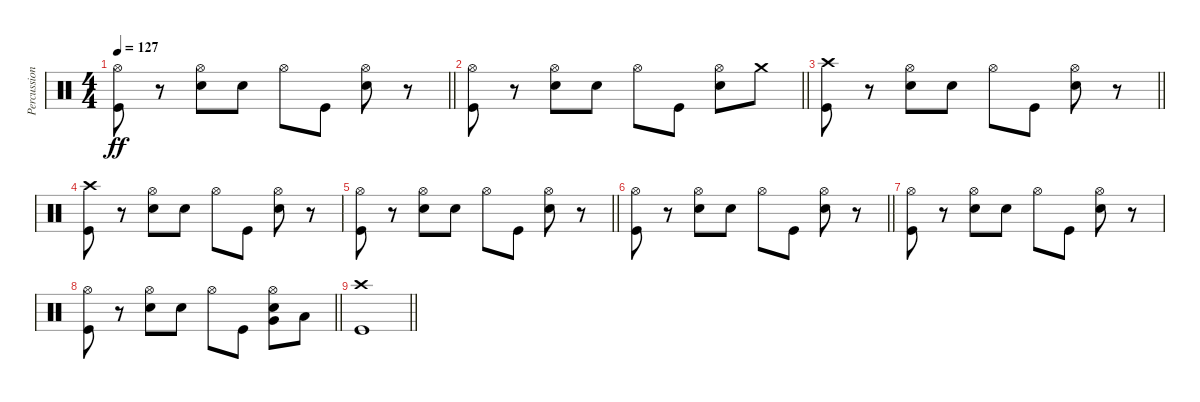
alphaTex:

\track ("Percussion" "Percussion") {instrument percussion}
\staff {score}
\articulation defaults
\ts (4 4)
\tempo 127
\clef neutral
\barLineRight lightlight
\ks c
("Hi-Hat (open)" "Kick (hit)").8{dy ff} r.8 ("Hi-Hat (open)" "Electric Snare (hit)").8 "Electric Snare (hit)".8 "Hi-Hat (open)".8 "Kick (hit)".8 ("Hi-Hat (open)" "Electric Snare (hit)").8 r.8 |
\barLineRight lightlight
("Hi-Hat (open)" "Kick (hit)").8 r.8 ("Hi-Hat (open)" "Electric Snare (hit)").8 "Electric Snare (hit)".8 "Hi-Hat (open)".8 "Kick (hit)".8 ("Hi-Hat (open)" "Electric Snare (hit)").8 "Crash medium (hit)".8 |
\barLineRight lightlight
("Crash high (hit)" "Kick (hit)").8 r.8 ("Hi-Hat (open)" "Electric Snare (hit)").8 "Electric Snare (hit)".8 "Hi-Hat (open)".8 "Kick (hit)".8 ("Hi-Hat (open)" "Electric Snare (hit)").8 r.8 |
("Crash high (hit)" "Kick (hit)").8 r.8 ("Hi-Hat (open)" "Electric Snare (hit)").8 "Electric Snare (hit)".8 "Hi-Hat (open)".8 "Kick (hit)".8 ("Hi-Hat (open)" "Electric Snare (hit)").8 r.8 |
\barLineRight lightlight
("Hi-Hat (open)" "Kick (hit)").8 r.8 ("Hi-Hat (open)" "Electric Snare (hit)").8 "Electric Snare (hit)".8 "Hi-Hat (open)".8 "Kick (hit)".8 ("Hi-Hat (open)" "Electric Snare (hit)").8 r.8 |
\barLineRight lightlight
("Hi-Hat (open)" "Kick (hit)").8 r.8 ("Hi-Hat (open)" "Electric Snare (hit)").8 "Electric Snare (hit)".8 "Hi-Hat (open)".8 "Kick (hit)".8 ("Hi-Hat (open)" "Electric Snare (hit)").8 r.8 |
("Hi-Hat (open)" "Kick (hit)").8 r.8 ("Hi-Hat (open)" "Electric Snare (hit)").8 "Electric Snare (hit)".8 "Hi-Hat (open)".8 "Kick (hit)".8 ("Hi-Hat (open)" "Electric Snare (hit)").8 r.8 |
\barLineRight lightlight
("Hi-Hat (open)" "Kick (hit)").8 r.8 ("Hi-Hat (open)" "Electric Snare (hit)").8 "Electric Snare (hit)".8 "Hi-Hat (open)".8 "Kick (hit)".8 ("Hi-Hat (open)" "Very Low Tom (hit)" "Electric Snare (hit)").8 "Low Floor Tom (hit)".8 |
\barLineRight lightlight
("Crash high (hit)" "Kick (hit)").1
